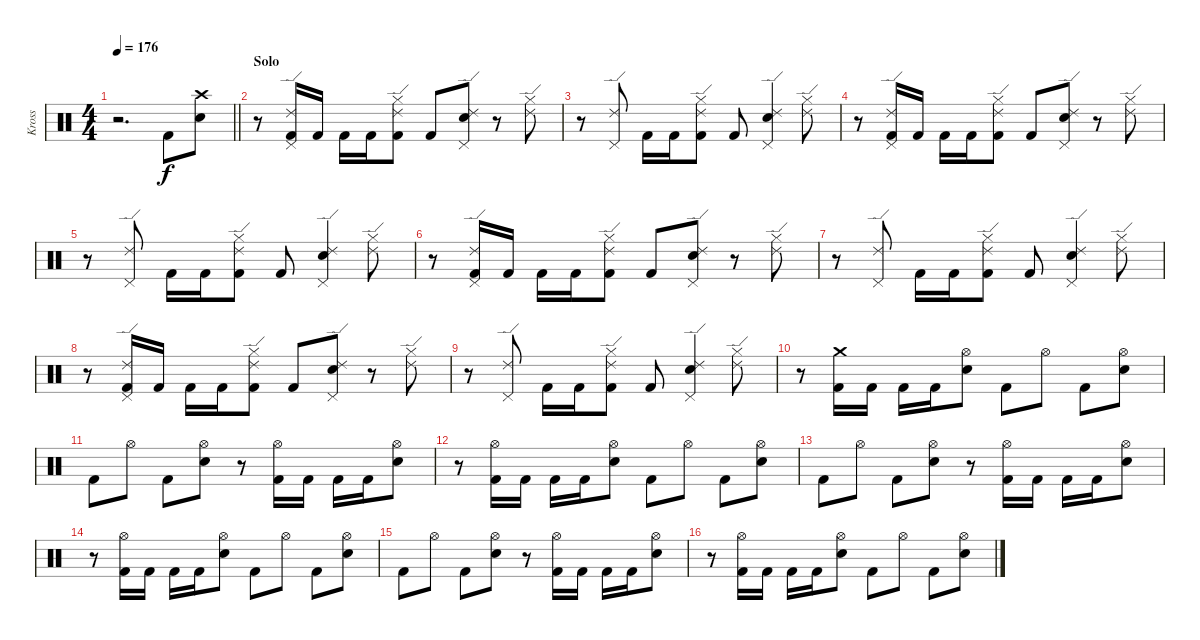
\track ("Kross" "Kross") {instrument percussion}
\staff {score}
\articulation defaults
\ts (4 4)
\tempo 176
\clef neutral
\barLineRight lightlight
\ks c
r.2{d dy f} "Kick (hit) 2".8 ("Crash high (hit)" "Electric Snare (hit)").8 |
\section ("" "Solo")
r.8 ("Ride (edge) 2" "Pedal Hi-Hat (hit)" "Kick (hit) 2").16 "Kick (hit) 2".16 "Kick (hit) 2".16 "Kick (hit) 2".16 ("Ride (edge) 2" "Hi-Hat (closed)" "Kick (hit) 2").8 "Kick (hit) 2".8 ("Ride (edge) 2" "Pedal Hi-Hat (hit)" "Electric Snare (hit)").8 r.8 ("Ride (edge) 2" "Hi-Hat (closed)").8 |
r.8 ("Ride (edge) 2" "Pedal Hi-Hat (hit)").8 "Kick (hit) 2".16 "Kick (hit) 2".16 ("Ride (edge) 2" "Hi-Hat (closed)" "Kick (hit) 2").8 "Kick (hit) 2".8 ("Ride (edge) 2" "Pedal Hi-Hat (hit)" "Electric Snare (hit)").4 ("Ride (edge) 2" "Hi-Hat (closed)").8 |
r.8 ("Ride (edge) 2" "Pedal Hi-Hat (hit)" "Kick (hit) 2").16 "Kick (hit) 2".16 "Kick (hit) 2".16 "Kick (hit) 2".16 ("Ride (edge) 2" "Hi-Hat (closed)" "Kick (hit) 2").8 "Kick (hit) 2".8 ("Ride (edge) 2" "Pedal Hi-Hat (hit)" "Electric Snare (hit)").8 r.8 ("Ride (edge) 2" "Hi-Hat (closed)").8 |
r.8 ("Ride (edge) 2" "Pedal Hi-Hat (hit)").8 "Kick (hit) 2".16 "Kick (hit) 2".16 ("Ride (edge) 2" "Hi-Hat (closed)" "Kick (hit) 2").8 "Kick (hit) 2".8 ("Ride (edge) 2" "Pedal Hi-Hat (hit)" "Electric Snare (hit)").4 ("Ride (edge) 2" "Hi-Hat (closed)").8 |
r.8 ("Ride (edge) 2" "Pedal Hi-Hat (hit)" "Kick (hit) 2").16 "Kick (hit) 2".16 "Kick (hit) 2".16 "Kick (hit) 2".16 ("Ride (edge) 2" "Hi-Hat (closed)" "Kick (hit) 2").8 "Kick (hit) 2".8 ("Ride (edge) 2" "Pedal Hi-Hat (hit)" "Electric Snare (hit)").8 r.8 ("Ride (edge) 2" "Hi-Hat (closed)").8 |
r.8 ("Ride (edge) 2" "Pedal Hi-Hat (hit)").8 "Kick (hit) 2".16 "Kick (hit) 2".16 ("Ride (edge) 2" "Hi-Hat (closed)" "Kick (hit) 2").8 "Kick (hit) 2".8 ("Ride (edge) 2" "Pedal Hi-Hat (hit)" "Electric Snare (hit)").4 ("Ride (edge) 2" "Hi-Hat (closed)").8 |
r.8 ("Ride (edge) 2" "Pedal Hi-Hat (hit)" "Kick (hit) 2").16 "Kick (hit) 2".16 "Kick (hit) 2".16 "Kick (hit) 2".16 ("Ride (edge) 2" "Hi-Hat (closed)" "Kick (hit) 2").8 "Kick (hit) 2".8 ("Ride (edge) 2" "Pedal Hi-Hat (hit)" "Electric Snare (hit)").8 r.8 ("Ride (edge) 2" "Hi-Hat (closed)").8 |
r.8 ("Ride (edge) 2" "Pedal Hi-Hat (hit)").8 "Kick (hit) 2".16 "Kick (hit) 2".16 ("Ride (edge) 2" "Hi-Hat (closed)" "Kick (hit) 2").8 "Kick (hit) 2".8 ("Ride (edge) 2" "Pedal Hi-Hat (hit)" "Electric Snare (hit)").4 ("Ride (edge) 2" "Hi-Hat (closed)").8 |
r.8 ("Crash medium (hit)" "Kick (hit) 2").16 "Kick (hit) 2".16 "Kick (hit) 2".16 "Kick (hit) 2".16 ("Hi-Hat (open)" "Electric Snare (hit)").8 "Kick (hit) 2".8 "Hi-Hat (open)".8 "Kick (hit) 2".8 ("Hi-Hat (open)" "Electric Snare (hit)").8 |
"Kick (hit) 2".8 "Hi-Hat (open)".8 "Kick (hit) 2".8 ("Hi-Hat (open)" "Electric Snare (hit)").8 r.8 ("Hi-Hat (open)" "Kick (hit) 2").16 "Kick (hit) 2".16 "Kick (hit) 2".16 "Kick (hit) 2".16 ("Hi-Hat (open)" "Electric Snare (hit)").8 |
r.8 ("Hi-Hat (open)" "Kick (hit) 2").16 "Kick (hit) 2".16 "Kick (hit) 2".16 "Kick (hit) 2".16 ("Hi-Hat (open)" "Electric Snare (hit)").8 "Kick (hit) 2".8 "Hi-Hat (open)".8 "Kick (hit) 2".8 ("Hi-Hat (open)" "Electric Snare (hit)").8 |
"Kick (hit) 2".8 "Hi-Hat (open)".8 "Kick (hit) 2".8 ("Hi-Hat (open)" "Electric Snare (hit)").8 r.8 ("Hi-Hat (open)" "Kick (hit) 2").16 "Kick (hit) 2".16 "Kick (hit) 2".16 "Kick (hit) 2".16 ("Hi-Hat (open)" "Electric Snare (hit)").8 |
r.8 ("Hi-Hat (open)" "Kick (hit) 2").16 "Kick (hit) 2".16 "Kick (hit) 2".16 "Kick (hit) 2".16 ("Hi-Hat (open)" "Electric Snare (hit)").8 "Kick (hit) 2".8 "Hi-Hat (open)".8 "Kick (hit) 2".8 ("Hi-Hat (open)" "Electric Snare (hit)").8 |
"Kick (hit) 2".8 "Hi-Hat (open)".8 "Kick (hit) 2".8 ("Hi-Hat (open)" "Electric Snare (hit)").8 r.8 ("Hi-Hat (open)" "Kick (hit) 2").16 "Kick (hit) 2".16 "Kick (hit) 2".16 "Kick (hit) 2".16 ("Hi-Hat (open)" "Electric Snare (hit)").8 |
r.8 ("Hi-Hat (open)" "Kick (hit) 2").16 "Kick (hit) 2".16 "Kick (hit) 2".16 "Kick (hit) 2".16 ("Hi-Hat (open)" "Electric Snare (hit)").8 "Kick (hit) 2".8 "Hi-Hat (open)".8 "Kick (hit) 2".8 ("Hi-Hat (open)" "Electric Snare (hit)").8
